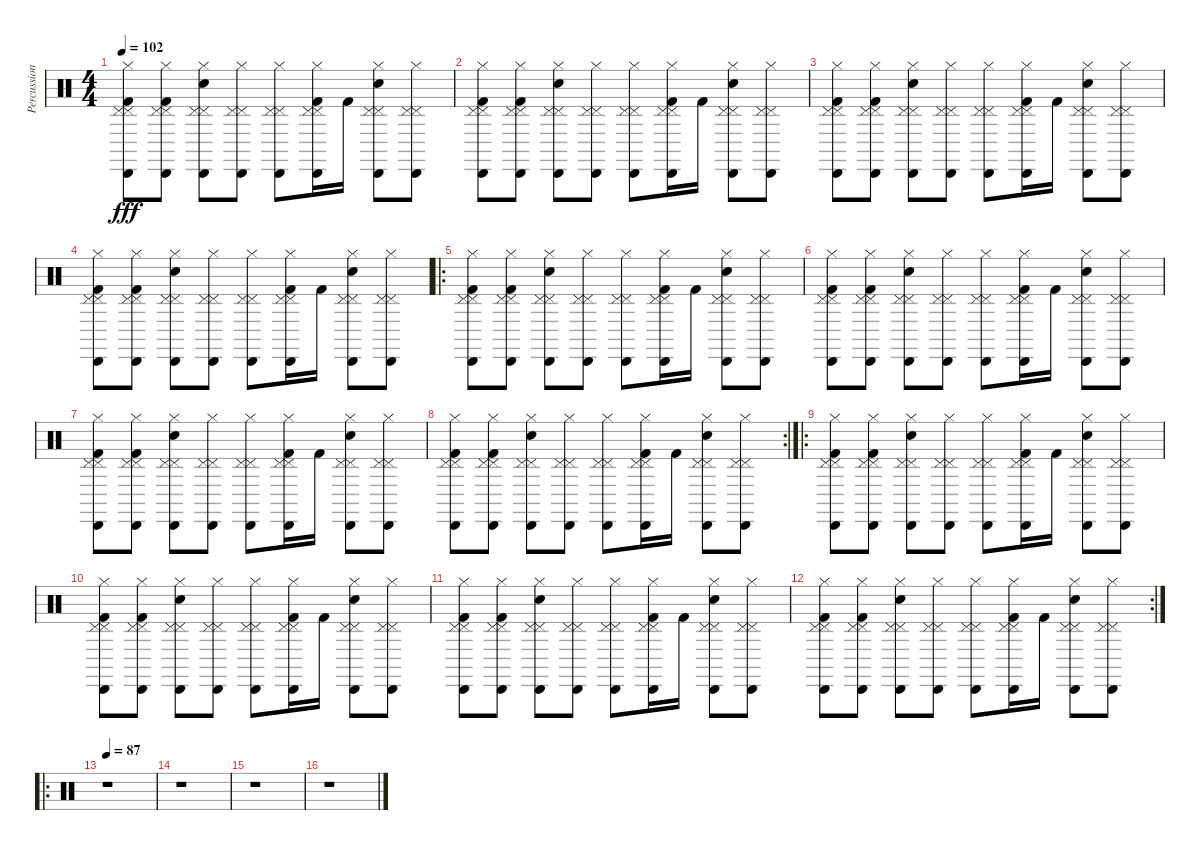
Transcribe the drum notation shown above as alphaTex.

\track ("Percussion" "Percussion") {instrument percussion}
\staff {score}
\articulation defaults
\ts (4 4)
\tempo 102
\clef neutral
\ks c
("Hi-Hat (closed)" "Kick (hit) 2" "Cabasa (hit)" "Pedal Hi-Hat (hit)" "Pedal Hi-Hat (hit)").8{dy fff} ("Hi-Hat (closed)" "Kick (hit) 2" "Cabasa (hit)" "Pedal Hi-Hat (hit)" "Pedal Hi-Hat (hit)").8 ("Hi-Hat (closed)" "Cabasa (hit)" "Electric Snare (hit)" "Pedal Hi-Hat (hit)" "Pedal Hi-Hat (hit)").8 ("Hi-Hat (closed)" "Cabasa (hit)" "Pedal Hi-Hat (hit)" "Pedal Hi-Hat (hit)").8 ("Hi-Hat (closed)" "Cabasa (hit)" "Pedal Hi-Hat (hit)" "Pedal Hi-Hat (hit)").8 ("Hi-Hat (closed)" "Kick (hit) 2" "Cabasa (hit)" "Pedal Hi-Hat (hit)" "Pedal Hi-Hat (hit)").16 "Kick (hit) 2".16 ("Hi-Hat (closed)" "Cabasa (hit)" "Electric Snare (hit)" "Pedal Hi-Hat (hit)" "Pedal Hi-Hat (hit)").8 ("Hi-Hat (closed)" "Cabasa (hit)" "Pedal Hi-Hat (hit)" "Pedal Hi-Hat (hit)").8 |
("Hi-Hat (closed)" "Kick (hit) 2" "Cabasa (hit)" "Pedal Hi-Hat (hit)" "Pedal Hi-Hat (hit)").8 ("Hi-Hat (closed)" "Kick (hit) 2" "Cabasa (hit)" "Pedal Hi-Hat (hit)" "Pedal Hi-Hat (hit)").8 ("Hi-Hat (closed)" "Cabasa (hit)" "Electric Snare (hit)" "Pedal Hi-Hat (hit)" "Pedal Hi-Hat (hit)").8 ("Hi-Hat (closed)" "Cabasa (hit)" "Pedal Hi-Hat (hit)" "Pedal Hi-Hat (hit)").8 ("Hi-Hat (closed)" "Cabasa (hit)" "Pedal Hi-Hat (hit)" "Pedal Hi-Hat (hit)").8 ("Hi-Hat (closed)" "Kick (hit) 2" "Cabasa (hit)" "Pedal Hi-Hat (hit)" "Pedal Hi-Hat (hit)").16 "Kick (hit) 2".16 ("Hi-Hat (closed)" "Cabasa (hit)" "Electric Snare (hit)" "Pedal Hi-Hat (hit)" "Pedal Hi-Hat (hit)").8 ("Hi-Hat (closed)" "Cabasa (hit)" "Pedal Hi-Hat (hit)" "Pedal Hi-Hat (hit)").8 |
("Hi-Hat (closed)" "Kick (hit) 2" "Cabasa (hit)" "Pedal Hi-Hat (hit)" "Pedal Hi-Hat (hit)").8 ("Hi-Hat (closed)" "Kick (hit) 2" "Cabasa (hit)" "Pedal Hi-Hat (hit)" "Pedal Hi-Hat (hit)").8 ("Hi-Hat (closed)" "Cabasa (hit)" "Electric Snare (hit)" "Pedal Hi-Hat (hit)" "Pedal Hi-Hat (hit)").8 ("Hi-Hat (closed)" "Cabasa (hit)" "Pedal Hi-Hat (hit)" "Pedal Hi-Hat (hit)").8 ("Hi-Hat (closed)" "Cabasa (hit)" "Pedal Hi-Hat (hit)" "Pedal Hi-Hat (hit)").8 ("Hi-Hat (closed)" "Kick (hit) 2" "Cabasa (hit)" "Pedal Hi-Hat (hit)" "Pedal Hi-Hat (hit)").16 "Kick (hit) 2".16 ("Hi-Hat (closed)" "Cabasa (hit)" "Electric Snare (hit)" "Pedal Hi-Hat (hit)" "Pedal Hi-Hat (hit)").8 ("Hi-Hat (closed)" "Cabasa (hit)" "Pedal Hi-Hat (hit)" "Pedal Hi-Hat (hit)").8 |
("Hi-Hat (closed)" "Kick (hit) 2" "Cabasa (hit)" "Pedal Hi-Hat (hit)" "Pedal Hi-Hat (hit)").8 ("Hi-Hat (closed)" "Kick (hit) 2" "Cabasa (hit)" "Pedal Hi-Hat (hit)" "Pedal Hi-Hat (hit)").8 ("Hi-Hat (closed)" "Cabasa (hit)" "Electric Snare (hit)" "Pedal Hi-Hat (hit)" "Pedal Hi-Hat (hit)").8 ("Hi-Hat (closed)" "Cabasa (hit)" "Pedal Hi-Hat (hit)" "Pedal Hi-Hat (hit)").8 ("Hi-Hat (closed)" "Cabasa (hit)" "Pedal Hi-Hat (hit)" "Pedal Hi-Hat (hit)").8 ("Hi-Hat (closed)" "Kick (hit) 2" "Cabasa (hit)" "Pedal Hi-Hat (hit)" "Pedal Hi-Hat (hit)").16 "Kick (hit) 2".16 ("Hi-Hat (closed)" "Cabasa (hit)" "Electric Snare (hit)" "Pedal Hi-Hat (hit)" "Pedal Hi-Hat (hit)").8 ("Hi-Hat (closed)" "Cabasa (hit)" "Pedal Hi-Hat (hit)" "Pedal Hi-Hat (hit)").8 |
\ro
("Hi-Hat (closed)" "Kick (hit) 2" "Cabasa (hit)" "Pedal Hi-Hat (hit)" "Pedal Hi-Hat (hit)").8 ("Hi-Hat (closed)" "Kick (hit) 2" "Cabasa (hit)" "Pedal Hi-Hat (hit)" "Pedal Hi-Hat (hit)").8 ("Hi-Hat (closed)" "Cabasa (hit)" "Electric Snare (hit)" "Pedal Hi-Hat (hit)" "Pedal Hi-Hat (hit)").8 ("Hi-Hat (closed)" "Cabasa (hit)" "Pedal Hi-Hat (hit)" "Pedal Hi-Hat (hit)").8 ("Hi-Hat (closed)" "Cabasa (hit)" "Pedal Hi-Hat (hit)" "Pedal Hi-Hat (hit)").8 ("Hi-Hat (closed)" "Kick (hit) 2" "Cabasa (hit)" "Pedal Hi-Hat (hit)" "Pedal Hi-Hat (hit)").16 "Kick (hit) 2".16 ("Hi-Hat (closed)" "Cabasa (hit)" "Electric Snare (hit)" "Pedal Hi-Hat (hit)" "Pedal Hi-Hat (hit)").8 ("Hi-Hat (closed)" "Cabasa (hit)" "Pedal Hi-Hat (hit)" "Pedal Hi-Hat (hit)").8 |
("Hi-Hat (closed)" "Kick (hit) 2" "Cabasa (hit)" "Pedal Hi-Hat (hit)" "Pedal Hi-Hat (hit)").8 ("Hi-Hat (closed)" "Kick (hit) 2" "Cabasa (hit)" "Pedal Hi-Hat (hit)" "Pedal Hi-Hat (hit)").8 ("Hi-Hat (closed)" "Cabasa (hit)" "Electric Snare (hit)" "Pedal Hi-Hat (hit)" "Pedal Hi-Hat (hit)").8 ("Hi-Hat (closed)" "Cabasa (hit)" "Pedal Hi-Hat (hit)" "Pedal Hi-Hat (hit)").8 ("Hi-Hat (closed)" "Cabasa (hit)" "Pedal Hi-Hat (hit)" "Pedal Hi-Hat (hit)").8 ("Hi-Hat (closed)" "Kick (hit) 2" "Cabasa (hit)" "Pedal Hi-Hat (hit)" "Pedal Hi-Hat (hit)").16 "Kick (hit) 2".16 ("Hi-Hat (closed)" "Cabasa (hit)" "Electric Snare (hit)" "Pedal Hi-Hat (hit)" "Pedal Hi-Hat (hit)").8 ("Hi-Hat (closed)" "Cabasa (hit)" "Pedal Hi-Hat (hit)" "Pedal Hi-Hat (hit)").8 |
("Hi-Hat (closed)" "Kick (hit) 2" "Cabasa (hit)" "Pedal Hi-Hat (hit)" "Pedal Hi-Hat (hit)").8 ("Hi-Hat (closed)" "Kick (hit) 2" "Cabasa (hit)" "Pedal Hi-Hat (hit)" "Pedal Hi-Hat (hit)").8 ("Hi-Hat (closed)" "Cabasa (hit)" "Electric Snare (hit)" "Pedal Hi-Hat (hit)" "Pedal Hi-Hat (hit)").8 ("Hi-Hat (closed)" "Cabasa (hit)" "Pedal Hi-Hat (hit)" "Pedal Hi-Hat (hit)").8 ("Hi-Hat (closed)" "Cabasa (hit)" "Pedal Hi-Hat (hit)" "Pedal Hi-Hat (hit)").8 ("Hi-Hat (closed)" "Kick (hit) 2" "Cabasa (hit)" "Pedal Hi-Hat (hit)" "Pedal Hi-Hat (hit)").16 "Kick (hit) 2".16 ("Hi-Hat (closed)" "Cabasa (hit)" "Electric Snare (hit)" "Pedal Hi-Hat (hit)" "Pedal Hi-Hat (hit)").8 ("Hi-Hat (closed)" "Cabasa (hit)" "Pedal Hi-Hat (hit)" "Pedal Hi-Hat (hit)").8 |
\rc 2
("Hi-Hat (closed)" "Kick (hit) 2" "Cabasa (hit)" "Pedal Hi-Hat (hit)" "Pedal Hi-Hat (hit)").8 ("Hi-Hat (closed)" "Kick (hit) 2" "Cabasa (hit)" "Pedal Hi-Hat (hit)" "Pedal Hi-Hat (hit)").8 ("Hi-Hat (closed)" "Cabasa (hit)" "Electric Snare (hit)" "Pedal Hi-Hat (hit)" "Pedal Hi-Hat (hit)").8 ("Hi-Hat (closed)" "Cabasa (hit)" "Pedal Hi-Hat (hit)" "Pedal Hi-Hat (hit)").8 ("Hi-Hat (closed)" "Cabasa (hit)" "Pedal Hi-Hat (hit)" "Pedal Hi-Hat (hit)").8 ("Hi-Hat (closed)" "Kick (hit) 2" "Cabasa (hit)" "Pedal Hi-Hat (hit)" "Pedal Hi-Hat (hit)").16 "Kick (hit) 2".16 ("Hi-Hat (closed)" "Cabasa (hit)" "Electric Snare (hit)" "Pedal Hi-Hat (hit)" "Pedal Hi-Hat (hit)").8 ("Hi-Hat (closed)" "Cabasa (hit)" "Pedal Hi-Hat (hit)" "Pedal Hi-Hat (hit)").8 |
\ro
("Hi-Hat (closed)" "Kick (hit) 2" "Cabasa (hit)" "Pedal Hi-Hat (hit)" "Pedal Hi-Hat (hit)").8 ("Hi-Hat (closed)" "Kick (hit) 2" "Cabasa (hit)" "Pedal Hi-Hat (hit)" "Pedal Hi-Hat (hit)").8 ("Hi-Hat (closed)" "Cabasa (hit)" "Electric Snare (hit)" "Pedal Hi-Hat (hit)" "Pedal Hi-Hat (hit)").8 ("Hi-Hat (closed)" "Cabasa (hit)" "Pedal Hi-Hat (hit)" "Pedal Hi-Hat (hit)").8 ("Hi-Hat (closed)" "Cabasa (hit)" "Pedal Hi-Hat (hit)" "Pedal Hi-Hat (hit)").8 ("Hi-Hat (closed)" "Kick (hit) 2" "Cabasa (hit)" "Pedal Hi-Hat (hit)" "Pedal Hi-Hat (hit)").16 "Kick (hit) 2".16 ("Hi-Hat (closed)" "Cabasa (hit)" "Electric Snare (hit)" "Pedal Hi-Hat (hit)" "Pedal Hi-Hat (hit)").8 ("Hi-Hat (closed)" "Cabasa (hit)" "Pedal Hi-Hat (hit)" "Pedal Hi-Hat (hit)").8 |
("Hi-Hat (closed)" "Kick (hit) 2" "Cabasa (hit)" "Pedal Hi-Hat (hit)" "Pedal Hi-Hat (hit)").8 ("Hi-Hat (closed)" "Kick (hit) 2" "Cabasa (hit)" "Pedal Hi-Hat (hit)" "Pedal Hi-Hat (hit)").8 ("Hi-Hat (closed)" "Cabasa (hit)" "Electric Snare (hit)" "Pedal Hi-Hat (hit)" "Pedal Hi-Hat (hit)").8 ("Hi-Hat (closed)" "Cabasa (hit)" "Pedal Hi-Hat (hit)" "Pedal Hi-Hat (hit)").8 ("Hi-Hat (closed)" "Cabasa (hit)" "Pedal Hi-Hat (hit)" "Pedal Hi-Hat (hit)").8 ("Hi-Hat (closed)" "Kick (hit) 2" "Cabasa (hit)" "Pedal Hi-Hat (hit)" "Pedal Hi-Hat (hit)").16 "Kick (hit) 2".16 ("Hi-Hat (closed)" "Cabasa (hit)" "Electric Snare (hit)" "Pedal Hi-Hat (hit)" "Pedal Hi-Hat (hit)").8 ("Hi-Hat (closed)" "Cabasa (hit)" "Pedal Hi-Hat (hit)" "Pedal Hi-Hat (hit)").8 |
("Hi-Hat (closed)" "Kick (hit) 2" "Cabasa (hit)" "Pedal Hi-Hat (hit)" "Pedal Hi-Hat (hit)").8 ("Hi-Hat (closed)" "Kick (hit) 2" "Cabasa (hit)" "Pedal Hi-Hat (hit)" "Pedal Hi-Hat (hit)").8 ("Hi-Hat (closed)" "Cabasa (hit)" "Electric Snare (hit)" "Pedal Hi-Hat (hit)" "Pedal Hi-Hat (hit)").8 ("Hi-Hat (closed)" "Cabasa (hit)" "Pedal Hi-Hat (hit)" "Pedal Hi-Hat (hit)").8 ("Hi-Hat (closed)" "Cabasa (hit)" "Pedal Hi-Hat (hit)" "Pedal Hi-Hat (hit)").8 ("Hi-Hat (closed)" "Kick (hit) 2" "Cabasa (hit)" "Pedal Hi-Hat (hit)" "Pedal Hi-Hat (hit)").16 "Kick (hit) 2".16 ("Hi-Hat (closed)" "Cabasa (hit)" "Electric Snare (hit)" "Pedal Hi-Hat (hit)" "Pedal Hi-Hat (hit)").8 ("Hi-Hat (closed)" "Cabasa (hit)" "Pedal Hi-Hat (hit)" "Pedal Hi-Hat (hit)").8 |
\rc 2
("Hi-Hat (closed)" "Kick (hit) 2" "Cabasa (hit)" "Pedal Hi-Hat (hit)" "Pedal Hi-Hat (hit)").8 ("Hi-Hat (closed)" "Kick (hit) 2" "Cabasa (hit)" "Pedal Hi-Hat (hit)" "Pedal Hi-Hat (hit)").8 ("Hi-Hat (closed)" "Cabasa (hit)" "Electric Snare (hit)" "Pedal Hi-Hat (hit)" "Pedal Hi-Hat (hit)").8 ("Hi-Hat (closed)" "Cabasa (hit)" "Pedal Hi-Hat (hit)" "Pedal Hi-Hat (hit)").8 ("Hi-Hat (closed)" "Cabasa (hit)" "Pedal Hi-Hat (hit)" "Pedal Hi-Hat (hit)").8 ("Hi-Hat (closed)" "Kick (hit) 2" "Cabasa (hit)" "Pedal Hi-Hat (hit)" "Pedal Hi-Hat (hit)").16 "Kick (hit) 2".16 ("Hi-Hat (closed)" "Cabasa (hit)" "Electric Snare (hit)" "Pedal Hi-Hat (hit)" "Pedal Hi-Hat (hit)").8 ("Hi-Hat (closed)" "Cabasa (hit)" "Pedal Hi-Hat (hit)" "Pedal Hi-Hat (hit)").8 |
\ro
\tempo 87
r.1 |
r.1 |
r.1 |
r.1
